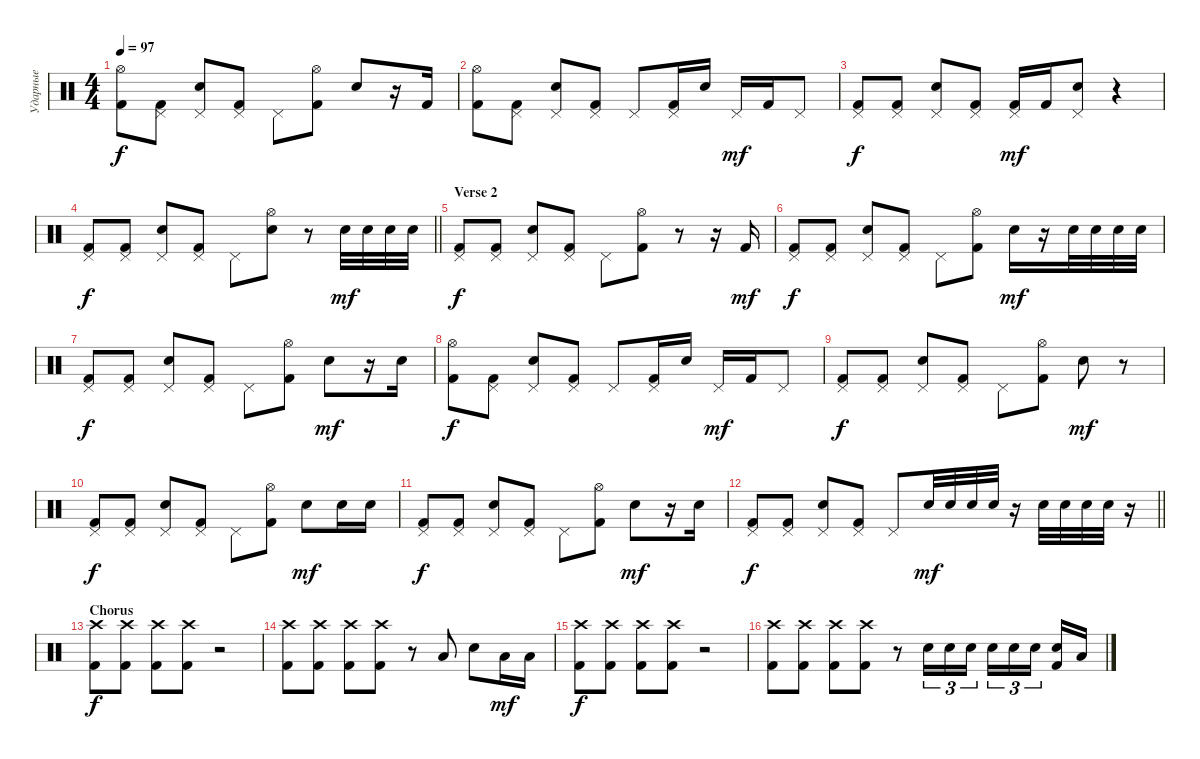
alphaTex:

\track ("Ударные" "Ударные") {instrument percussion}
\staff {score}
\articulation defaults
\ts (4 4)
\tempo 97
\clef neutral
\ks c
("Hi-Hat (open)" "Kick (hit) 2").8{dy f} ("Pedal Hi-Hat (hit)" "Kick (hit) 2").8 ("Pedal Hi-Hat (hit)" "Snare (hit) 2").8 ("Pedal Hi-Hat (hit)" "Kick (hit) 2").8 "Pedal Hi-Hat (hit)".8 ("Hi-Hat (open)" "Kick (hit) 2").8 "Snare (hit) 2".8 r.16 "Kick (hit) 2".16 |
("Hi-Hat (open)" "Kick (hit) 2").8 ("Pedal Hi-Hat (hit)" "Kick (hit) 2").8 ("Pedal Hi-Hat (hit)" "Snare (hit) 2").8 ("Pedal Hi-Hat (hit)" "Kick (hit) 2").8 "Pedal Hi-Hat (hit)".8 ("Pedal Hi-Hat (hit)" "Kick (hit) 2").16 "Snare (hit) 2".16 "Pedal Hi-Hat (hit)".16{dy mf} "Kick (hit) 2".16 "Pedal Hi-Hat (hit)".8 |
("Pedal Hi-Hat (hit)" "Kick (hit) 2").8{dy f} ("Pedal Hi-Hat (hit)" "Kick (hit) 2").8 ("Pedal Hi-Hat (hit)" "Snare (hit) 2").8 ("Pedal Hi-Hat (hit)" "Kick (hit) 2").8 ("Pedal Hi-Hat (hit)" "Kick (hit) 2").16{dy mf} "Kick (hit) 2".16 ("Pedal Hi-Hat (hit)" "Snare (hit) 2").8 r.4 |
\barLineRight lightlight
("Pedal Hi-Hat (hit)" "Kick (hit) 2").8{dy f} ("Pedal Hi-Hat (hit)" "Kick (hit) 2").8 ("Pedal Hi-Hat (hit)" "Snare (hit) 2").8 ("Pedal Hi-Hat (hit)" "Kick (hit) 2").8 "Pedal Hi-Hat (hit)".8 ("Hi-Hat (open)" "Snare (hit) 2").8 r.8 "Snare (hit) 2".32{dy mf} "Snare (hit) 2".32 "Snare (hit) 2".32 "Snare (hit) 2".32 |
\section ("" "Verse 2")
("Pedal Hi-Hat (hit)" "Kick (hit) 2").8{dy f} ("Pedal Hi-Hat (hit)" "Kick (hit) 2").8 ("Pedal Hi-Hat (hit)" "Snare (hit) 2").8 ("Pedal Hi-Hat (hit)" "Kick (hit) 2").8 "Pedal Hi-Hat (hit)".8 ("Hi-Hat (open)" "Kick (hit) 2").8 r.8 r.16 "Kick (hit) 2".16{dy mf} |
("Pedal Hi-Hat (hit)" "Kick (hit) 2").8{dy f} ("Pedal Hi-Hat (hit)" "Kick (hit) 2").8 ("Pedal Hi-Hat (hit)" "Snare (hit) 2").8 ("Pedal Hi-Hat (hit)" "Kick (hit) 2").8 "Pedal Hi-Hat (hit)".8 ("Hi-Hat (open)" "Kick (hit) 2").8 "Snare (hit) 2".16{dy mf} r.16 "Snare (hit) 2".32 "Snare (hit) 2".32 "Snare (hit) 2".32 "Snare (hit) 2".32 |
("Pedal Hi-Hat (hit)" "Kick (hit) 2").8{dy f} ("Pedal Hi-Hat (hit)" "Kick (hit) 2").8 ("Pedal Hi-Hat (hit)" "Snare (hit) 2").8 ("Pedal Hi-Hat (hit)" "Kick (hit) 2").8 "Pedal Hi-Hat (hit)".8 ("Hi-Hat (open)" "Kick (hit) 2").8 "Snare (hit) 2".8{dy mf} r.16 "Snare (hit) 2".16 |
("Hi-Hat (open)" "Kick (hit) 2").8{dy f} ("Pedal Hi-Hat (hit)" "Kick (hit) 2").8 ("Pedal Hi-Hat (hit)" "Snare (hit) 2").8 ("Pedal Hi-Hat (hit)" "Kick (hit) 2").8 "Pedal Hi-Hat (hit)".8 ("Pedal Hi-Hat (hit)" "Kick (hit) 2").16 "Snare (hit) 2".16 "Pedal Hi-Hat (hit)".16{dy mf} "Kick (hit) 2".16 "Pedal Hi-Hat (hit)".8 |
("Pedal Hi-Hat (hit)" "Kick (hit) 2").8{dy f} ("Pedal Hi-Hat (hit)" "Kick (hit) 2").8 ("Pedal Hi-Hat (hit)" "Snare (hit) 2").8 ("Pedal Hi-Hat (hit)" "Kick (hit) 2").8 "Pedal Hi-Hat (hit)".8 ("Hi-Hat (open)" "Kick (hit) 2").8 "Snare (hit) 2".8{dy mf} r.8 |
("Pedal Hi-Hat (hit)" "Kick (hit) 2").8{dy f} ("Pedal Hi-Hat (hit)" "Kick (hit) 2").8 ("Pedal Hi-Hat (hit)" "Snare (hit) 2").8 ("Pedal Hi-Hat (hit)" "Kick (hit) 2").8 "Pedal Hi-Hat (hit)".8 ("Hi-Hat (open)" "Kick (hit) 2").8 "Snare (hit) 2".8{dy mf} "Snare (hit) 2".16 "Snare (hit) 2".16 |
("Pedal Hi-Hat (hit)" "Kick (hit) 2").8{dy f} ("Pedal Hi-Hat (hit)" "Kick (hit) 2").8 ("Pedal Hi-Hat (hit)" "Snare (hit) 2").8 ("Pedal Hi-Hat (hit)" "Kick (hit) 2").8 "Pedal Hi-Hat (hit)".8 ("Hi-Hat (open)" "Kick (hit) 2").8 "Snare (hit) 2".8{dy mf} r.16 "Snare (hit) 2".16 |
\barLineRight lightlight
("Pedal Hi-Hat (hit)" "Kick (hit) 2").8{dy f} ("Pedal Hi-Hat (hit)" "Kick (hit) 2").8 ("Pedal Hi-Hat (hit)" "Snare (hit) 2").8 ("Pedal Hi-Hat (hit)" "Kick (hit) 2").8 "Pedal Hi-Hat (hit)".8 "Snare (hit) 2".32{dy mf} "Snare (hit) 2".32 "Snare (hit) 2".32 "Snare (hit) 2".32 r.16 "Snare (hit) 2".32 "Snare (hit) 2".32 "Snare (hit) 2".32 "Snare (hit) 2".32 r.16 |
\section ("" "Chorus")
("Crash high (hit)" "Kick (hit) 2").8{dy f} ("Crash high (hit)" "Kick (hit) 2").8 ("Crash high (hit)" "Kick (hit) 2").8 ("Crash high (hit)" "Kick (hit) 2").8 r.2 |
("Crash high (hit)" "Kick (hit) 2").8 ("Crash high (hit)" "Kick (hit) 2").8 ("Crash high (hit)" "Kick (hit) 2").8 ("Crash high (hit)" "Kick (hit) 2").8 r.8 "Low Tom (hit)".8 "Snare (hit) 2".8 "Low Tom (hit)".16{dy mf} "Low Tom (hit)".16 |
("Crash high (hit)" "Kick (hit) 2").8{dy f} ("Crash high (hit)" "Kick (hit) 2").8 ("Crash high (hit)" "Kick (hit) 2").8 ("Crash high (hit)" "Kick (hit) 2").8 r.2 |
("Crash high (hit)" "Kick (hit) 2").8 ("Crash high (hit)" "Kick (hit) 2").8 ("Crash high (hit)" "Kick (hit) 2").8 ("Crash high (hit)" "Kick (hit) 2").8 r.8 "Snare (hit) 2".16{tu (3 2)} "Snare (hit) 2".16{tu (3 2)} "Snare (hit) 2".16{tu (3 2)} "Snare (hit) 2".16{tu (3 2)} "Snare (hit) 2".16{tu (3 2)} "Snare (hit) 2".16{tu (3 2) beam splitsecondary} ("Snare (hit) 2" "Kick (hit) 2").16 "Low Tom (hit)".16
